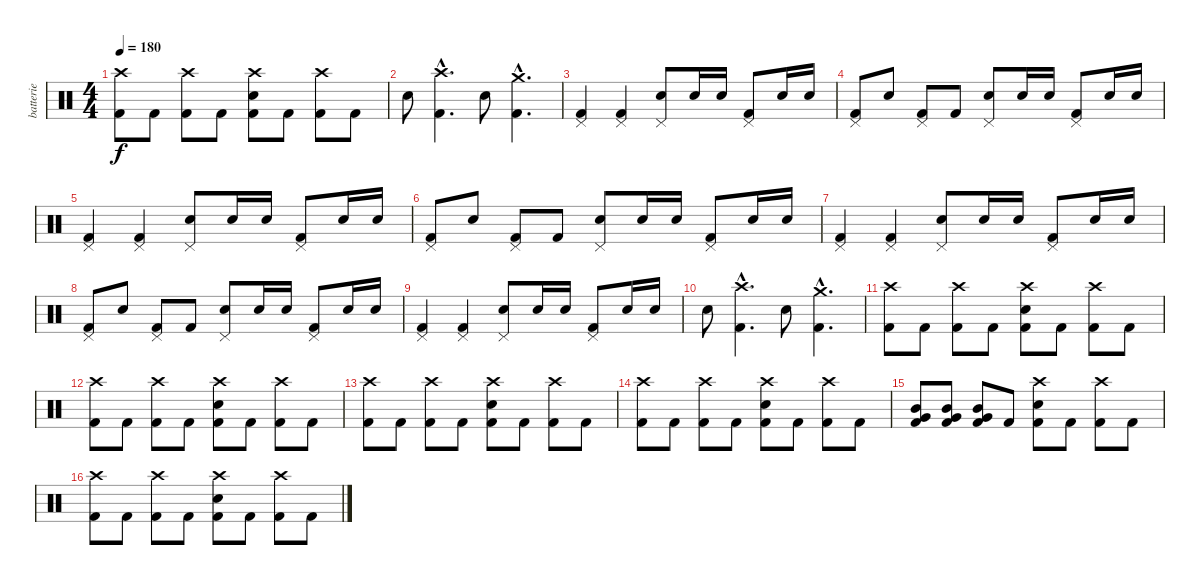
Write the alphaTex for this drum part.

\track ("batterie" "batterie") {instrument percussion}
\staff {score}
\articulation defaults
\ts (4 4)
\tempo 180
\clef neutral
\ks c
("Crash high (hit)" "Kick (hit) 2").8{dy f} "Kick (hit) 2".8 ("Crash high (hit)" "Kick (hit) 2").8 "Kick (hit) 2".8 ("Crash high (hit)" "Electric Snare (hit)" "Kick (hit) 2").8 "Kick (hit) 2".8 ("Crash high (hit)" "Kick (hit) 2").8 "Kick (hit) 2".8 |
"Electric Snare (hit)".8 ("Crash high (hit)"{hac} "Kick (hit) 2"{hac}).4{d} "Electric Snare (hit)".8 ("Crash medium (hit)"{hac} "Kick (hit) 2"{hac}).4{d} |
("Pedal Hi-Hat (hit)" "Kick (hit) 2").4 ("Pedal Hi-Hat (hit)" "Kick (hit) 2").4 ("Pedal Hi-Hat (hit)" "Electric Snare (hit)").8 "Electric Snare (hit)".16 "Electric Snare (hit)".16 ("Pedal Hi-Hat (hit)" "Kick (hit) 2").8 "Electric Snare (hit)".16 "Electric Snare (hit)".16 |
("Pedal Hi-Hat (hit)" "Kick (hit) 2").8 "Electric Snare (hit)".8 ("Pedal Hi-Hat (hit)" "Kick (hit) 2").8 "Kick (hit) 2".8 ("Pedal Hi-Hat (hit)" "Electric Snare (hit)").8 "Electric Snare (hit)".16 "Electric Snare (hit)".16 ("Pedal Hi-Hat (hit)" "Kick (hit) 2").8 "Electric Snare (hit)".16 "Electric Snare (hit)".16 |
("Pedal Hi-Hat (hit)" "Kick (hit) 2").4 ("Pedal Hi-Hat (hit)" "Kick (hit) 2").4 ("Pedal Hi-Hat (hit)" "Electric Snare (hit)").8 "Electric Snare (hit)".16 "Electric Snare (hit)".16 ("Pedal Hi-Hat (hit)" "Kick (hit) 2").8 "Electric Snare (hit)".16 "Electric Snare (hit)".16 |
("Pedal Hi-Hat (hit)" "Kick (hit) 2").8 "Electric Snare (hit)".8 ("Pedal Hi-Hat (hit)" "Kick (hit) 2").8 "Kick (hit) 2".8 ("Pedal Hi-Hat (hit)" "Electric Snare (hit)").8 "Electric Snare (hit)".16 "Electric Snare (hit)".16 ("Pedal Hi-Hat (hit)" "Kick (hit) 2").8 "Electric Snare (hit)".16 "Electric Snare (hit)".16 |
("Pedal Hi-Hat (hit)" "Kick (hit) 2").4 ("Pedal Hi-Hat (hit)" "Kick (hit) 2").4 ("Pedal Hi-Hat (hit)" "Electric Snare (hit)").8 "Electric Snare (hit)".16 "Electric Snare (hit)".16 ("Pedal Hi-Hat (hit)" "Kick (hit) 2").8 "Electric Snare (hit)".16 "Electric Snare (hit)".16 |
("Pedal Hi-Hat (hit)" "Kick (hit) 2").8 "Electric Snare (hit)".8 ("Pedal Hi-Hat (hit)" "Kick (hit) 2").8 "Kick (hit) 2".8 ("Pedal Hi-Hat (hit)" "Electric Snare (hit)").8 "Electric Snare (hit)".16 "Electric Snare (hit)".16 ("Pedal Hi-Hat (hit)" "Kick (hit) 2").8 "Electric Snare (hit)".16 "Electric Snare (hit)".16 |
("Pedal Hi-Hat (hit)" "Kick (hit) 2").4 ("Pedal Hi-Hat (hit)" "Kick (hit) 2").4 ("Pedal Hi-Hat (hit)" "Electric Snare (hit)").8 "Electric Snare (hit)".16 "Electric Snare (hit)".16 ("Pedal Hi-Hat (hit)" "Kick (hit) 2").8 "Electric Snare (hit)".16 "Electric Snare (hit)".16 |
"Electric Snare (hit)".8 ("Crash high (hit)"{hac} "Kick (hit) 2"{hac}).4{d} "Electric Snare (hit)".8 ("Crash medium (hit)"{hac} "Kick (hit) 2"{hac}).4{d} |
("Crash high (hit)" "Kick (hit) 2").8 "Kick (hit) 2".8 ("Crash high (hit)" "Kick (hit) 2").8 "Kick (hit) 2".8 ("Crash high (hit)" "Electric Snare (hit)" "Kick (hit) 2").8 "Kick (hit) 2".8 ("Crash high (hit)" "Kick (hit) 2").8 "Kick (hit) 2".8 |
("Crash high (hit)" "Kick (hit) 2").8 "Kick (hit) 2".8 ("Crash high (hit)" "Kick (hit) 2").8 "Kick (hit) 2".8 ("Crash high (hit)" "Electric Snare (hit)" "Kick (hit) 2").8 "Kick (hit) 2".8 ("Crash high (hit)" "Kick (hit) 2").8 "Kick (hit) 2".8 |
("Crash high (hit)" "Kick (hit) 2").8 "Kick (hit) 2".8 ("Crash high (hit)" "Kick (hit) 2").8 "Kick (hit) 2".8 ("Crash high (hit)" "Electric Snare (hit)" "Kick (hit) 2").8 "Kick (hit) 2".8 ("Crash high (hit)" "Kick (hit) 2").8 "Kick (hit) 2".8 |
("Crash high (hit)" "Kick (hit) 2").8 "Kick (hit) 2".8 ("Crash high (hit)" "Kick (hit) 2").8 "Kick (hit) 2".8 ("Crash high (hit)" "Electric Snare (hit)" "Kick (hit) 2").8 "Kick (hit) 2".8 ("Crash high (hit)" "Kick (hit) 2").8 "Kick (hit) 2".8 |
("Mid Tom (hit)" "Very Low Tom (hit)" "Kick (hit) 2").8 ("Mid Tom (hit)" "Very Low Tom (hit)" "Kick (hit) 2").8 ("Mid Tom (hit)" "Very Low Tom (hit)" "Kick (hit) 2").8 "Kick (hit) 2".8 ("Crash high (hit)" "Electric Snare (hit)" "Kick (hit) 2").8 "Kick (hit) 2".8 ("Crash high (hit)" "Kick (hit) 2").8 "Kick (hit) 2".8 |
("Crash high (hit)" "Kick (hit) 2").8 "Kick (hit) 2".8 ("Crash high (hit)" "Kick (hit) 2").8 "Kick (hit) 2".8 ("Crash high (hit)" "Electric Snare (hit)" "Kick (hit) 2").8 "Kick (hit) 2".8 ("Crash high (hit)" "Kick (hit) 2").8 "Kick (hit) 2".8
